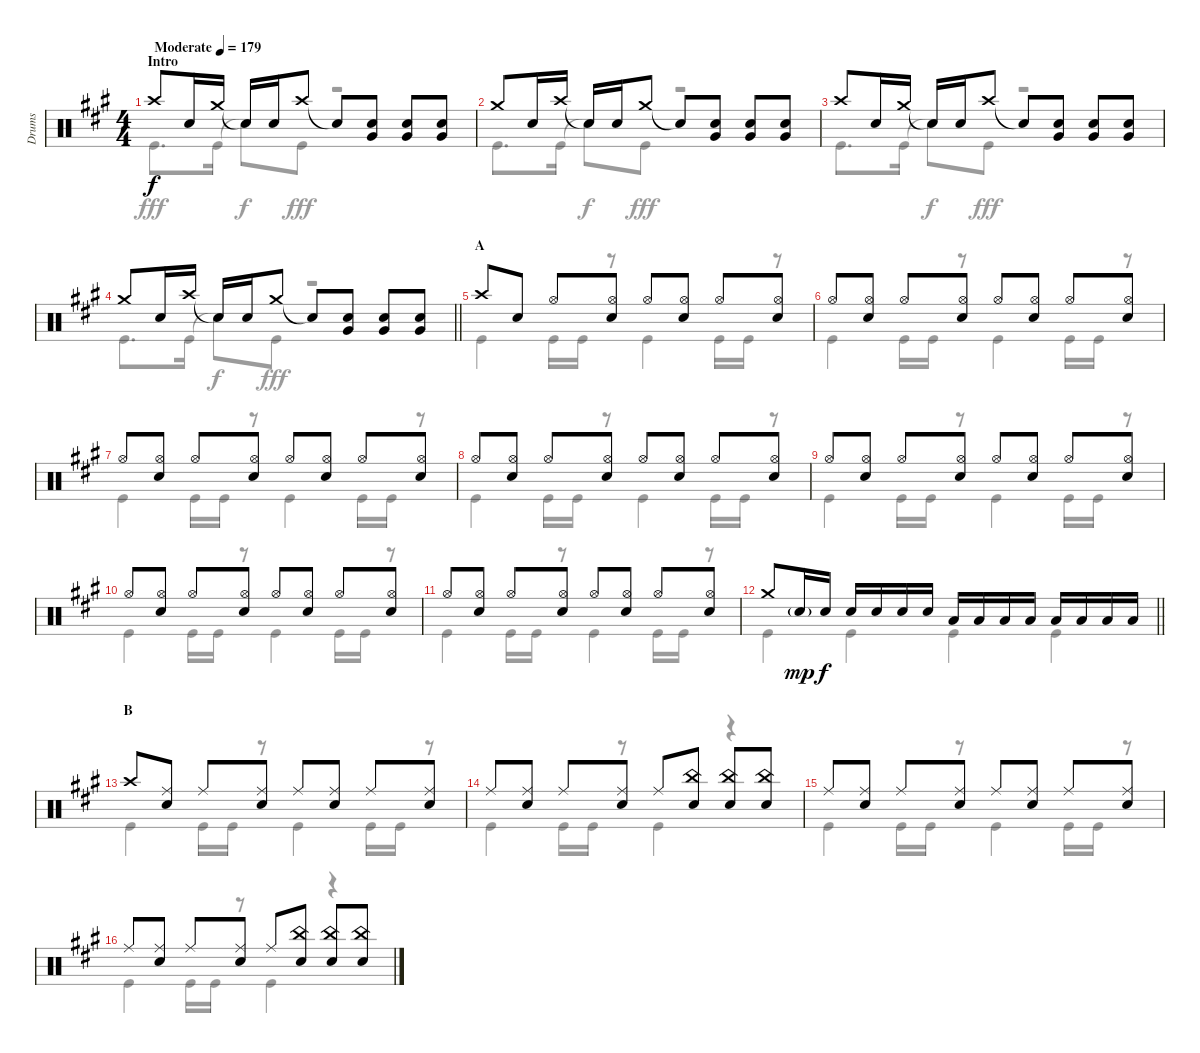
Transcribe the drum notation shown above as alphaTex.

\track ("Drums" "Drums") {instrument percussion}
\staff {score}
\articulation defaults
\voice
\ts (4 4)
\section ("" "Intro")
\tempo (179 "Moderate")
\clef neutral
\ks a "Crash high (hit)".8{dy f} "Snare (hit) 2".16 "Crash medium (hit)".16 "Snare (hit)"{t}.16 "Snare (hit) 2".16 "Crash high (hit)".8 "Snare (hit)"{t}.8
("Snare (hit) 2" "Very Low Tom (hit)").8 ("Snare (hit) 2" "Very Low Tom (hit)").8 ("Snare (hit) 2" "Very Low Tom (hit)").8 |
"Crash medium (hit)".8 "Snare (hit) 2".16 "Crash high (hit)".16 "Snare (hit)"{t}.16 "Snare (hit) 2".16 "Crash medium (hit)".8 "Snare (hit)"{t}.8 ("Snare (hit) 2" "Very Low Tom (hit)").8 ("Snare (hit) 2" "Very Low Tom (hit)").8 ("Snare (hit) 2" "Very Low Tom (hit)").8 |
"Crash high (hit)".8 "Snare (hit) 2".16 "Crash medium (hit)".16 "Snare (hit)"{t}.16 "Snare (hit) 2".16 "Crash high (hit)".8 "Snare (hit)"{t}.8 ("Snare (hit) 2" "Very Low Tom (hit)").8 ("Snare (hit) 2" "Very Low Tom (hit)").8 ("Snare (hit) 2" "Very Low Tom (hit)").8 |
\barLineRight lightlight "Crash medium (hit)".8 "Snare (hit) 2".16 "Crash high (hit)".16 "Snare (hit)"{t}.16 "Snare (hit) 2".16 "Crash medium (hit)".8 "Snare (hit)"{t}.8
("Snare (hit) 2" "Very Low Tom (hit)").8 ("Snare (hit) 2" "Very Low Tom (hit)").8 ("Snare (hit) 2" "Very Low Tom (hit)").8 |
\section ("" "A")
"Crash high (hit)".8 "Snare (hit) 2".8 "Hi-Hat (open)".8 ("Hi-Hat (open)" "Snare (hit) 2").8 "Hi-Hat (open)".8 ("Hi-Hat (open)" "Snare (hit) 2").8 "Hi-Hat (open)".8 ("Hi-Hat (open)" "Snare (hit) 2").8 |
"Hi-Hat (open)".8 ("Hi-Hat (open)" "Snare (hit) 2").8 "Hi-Hat (open)".8 ("Hi-Hat (open)" "Snare (hit) 2").8 "Hi-Hat (open)".8 ("Hi-Hat (open)" "Snare (hit) 2").8 "Hi-Hat (open)".8 ("Hi-Hat (open)" "Snare (hit) 2").8 |
"Hi-Hat (open)".8 ("Hi-Hat (open)" "Snare (hit) 2").8 "Hi-Hat (open)".8 ("Hi-Hat (open)" "Snare (hit) 2").8 "Hi-Hat (open)".8 ("Hi-Hat (open)" "Snare (hit) 2").8 "Hi-Hat (open)".8 ("Hi-Hat (open)" "Snare (hit) 2").8 |
"Hi-Hat (open)".8 ("Hi-Hat (open)" "Snare (hit) 2").8 "Hi-Hat (open)".8 ("Hi-Hat (open)" "Snare (hit) 2").8 "Hi-Hat (open)".8 ("Hi-Hat (open)" "Snare (hit) 2").8 "Hi-Hat (open)".8 ("Hi-Hat (open)" "Snare (hit) 2").8 |
"Hi-Hat (open)".8 ("Hi-Hat (open)" "Snare (hit) 2").8 "Hi-Hat (open)".8 ("Hi-Hat (open)" "Snare (hit) 2").8 "Hi-Hat (open)".8 ("Hi-Hat (open)" "Snare (hit) 2").8 "Hi-Hat (open)".8 ("Hi-Hat (open)" "Snare (hit) 2").8 |
"Hi-Hat (open)".8 ("Hi-Hat (open)" "Snare (hit) 2").8 "Hi-Hat (open)".8 ("Hi-Hat (open)" "Snare (hit) 2").8 "Hi-Hat (open)".8 ("Hi-Hat (open)" "Snare (hit) 2").8 "Hi-Hat (open)".8 ("Hi-Hat (open)" "Snare (hit) 2").8 |
"Hi-Hat (open)".8 ("Hi-Hat (open)" "Snare (hit) 2").8 "Hi-Hat (open)".8 ("Hi-Hat (open)" "Snare (hit) 2").8 "Hi-Hat (open)".8 ("Hi-Hat (open)" "Snare (hit) 2").8 "Hi-Hat (open)".8 ("Hi-Hat (open)" "Snare (hit) 2").8 |
\barLineRight lightlight "Crash medium (hit)".8 "Snare (hit) 2"{g}.16{dy mp} "Snare (hit) 2".16{dy f} "Snare (hit) 2".16 "Snare (hit) 2".16 "Snare (hit) 2".16 "Snare (hit) 2".16 "Low Tom (hit)".16 "Low Tom (hit)".16 "Low Tom (hit)".16 "Low Tom (hit)".16 "Low Tom (hit)".16 "Low Tom (hit)".16 "Low Tom (hit)".16 "Low Tom (hit)".16
|
\section ("" "B")
"Crash high (hit)".8 ("Ride (middle)" "Snare (hit) 2").8 "Ride (middle)".8 ("Ride (middle)" "Snare (hit) 2").8 "Ride (middle)".8 ("Ride (middle)" "Snare (hit) 2").8 "Ride (middle)".8 ("Ride (middle)" "Snare (hit) 2").8 |
"Ride (middle)".8 ("Ride (middle)" "Snare (hit) 2").8 "Ride (middle)".8 ("Ride (middle)" "Snare (hit) 2").8 "Ride (middle)".8 ("China (hit)" "Snare (hit) 2").8 ("China (hit)" "Snare (hit) 2").8 ("China (hit)" "Snare (hit) 2").8 |
"Ride (middle)".8 ("Ride (middle)" "Snare (hit) 2").8 "Ride (middle)".8 ("Ride (middle)" "Snare (hit) 2").8 "Ride (middle)".8 ("Ride (middle)" "Snare (hit) 2").8 "Ride (middle)".8 ("Ride (middle)" "Snare (hit) 2").8 |
"Ride (middle)".8 ("Ride (middle)" "Snare (hit) 2").8 "Ride (middle)".8 ("Ride (middle)" "Snare (hit) 2").8 "Ride (middle)".8 ("China (hit)" "Snare (hit) 2").8 ("China (hit)" "Snare (hit) 2").8 ("China (hit)" "Snare (hit) 2").8
\voice
\clef neutral
\ottava regular
\simile none
\ks a "Kick (hit)".8{d dy fff} "Kick (hit)".16 "Snare (hit)"{t}.8{dy f} "Kick (hit)".8{dy fff}
r.2 |
"Kick (hit)".8{d} "Kick (hit)".16 "Snare (hit)"{t}.8{dy f} "Kick (hit)".8{dy fff} r.2 |
"Kick (hit)".8{d} "Kick (hit)".16 "Snare (hit)"{t}.8{dy f} "Kick (hit)".8{dy fff} r.2 |
\barLineRight lightlight "Kick (hit)".8{d} "Kick (hit)".16 "Snare (hit)"{t}.8{dy f} "Kick (hit)".8{dy fff}
r.2 |
"Kick (hit)".4 "Kick (hit)".16 "Kick (hit)".16 r.8 "Kick (hit)".4 "Kick (hit)".16 "Kick (hit)".16 r.8 |
"Kick (hit)".4 "Kick (hit)".16 "Kick (hit)".16 r.8 "Kick (hit)".4 "Kick (hit)".16 "Kick (hit)".16 r.8 |
"Kick (hit)".4 "Kick (hit)".16 "Kick (hit)".16 r.8 "Kick (hit)".4 "Kick (hit)".16 "Kick (hit)".16 r.8 |
"Kick (hit)".4 "Kick (hit)".16 "Kick (hit)".16 r.8 "Kick (hit)".4 "Kick (hit)".16 "Kick (hit)".16 r.8 |
"Kick (hit)".4 "Kick (hit)".16 "Kick (hit)".16 r.8 "Kick (hit)".4 "Kick (hit)".16 "Kick (hit)".16 r.8 |
"Kick (hit)".4 "Kick (hit)".16 "Kick (hit)".16 r.8 "Kick (hit)".4 "Kick (hit)".16 "Kick (hit)".16 r.8 |
"Kick (hit)".4 "Kick (hit)".16 "Kick (hit)".16 r.8 "Kick (hit)".4 "Kick (hit)".16 "Kick (hit)".16 r.8 |
\barLineRight lightlight "Kick (hit)".4 "Kick (hit)".4 "Kick (hit)".4 "Kick (hit)".4
|
"Kick (hit)".4 "Kick (hit)".16 "Kick (hit)".16 r.8 "Kick (hit)".4 "Kick (hit)".16 "Kick (hit)".16 r.8 |
"Kick (hit)".4 "Kick (hit)".16 "Kick (hit)".16 r.8 "Kick (hit)".4 r.4 |
"Kick (hit)".4 "Kick (hit)".16 "Kick (hit)".16 r.8 "Kick (hit)".4 "Kick (hit)".16 "Kick (hit)".16 r.8 |
"Kick (hit)".4 "Kick (hit)".16 "Kick (hit)".16 r.8 "Kick (hit)".4 r.4
